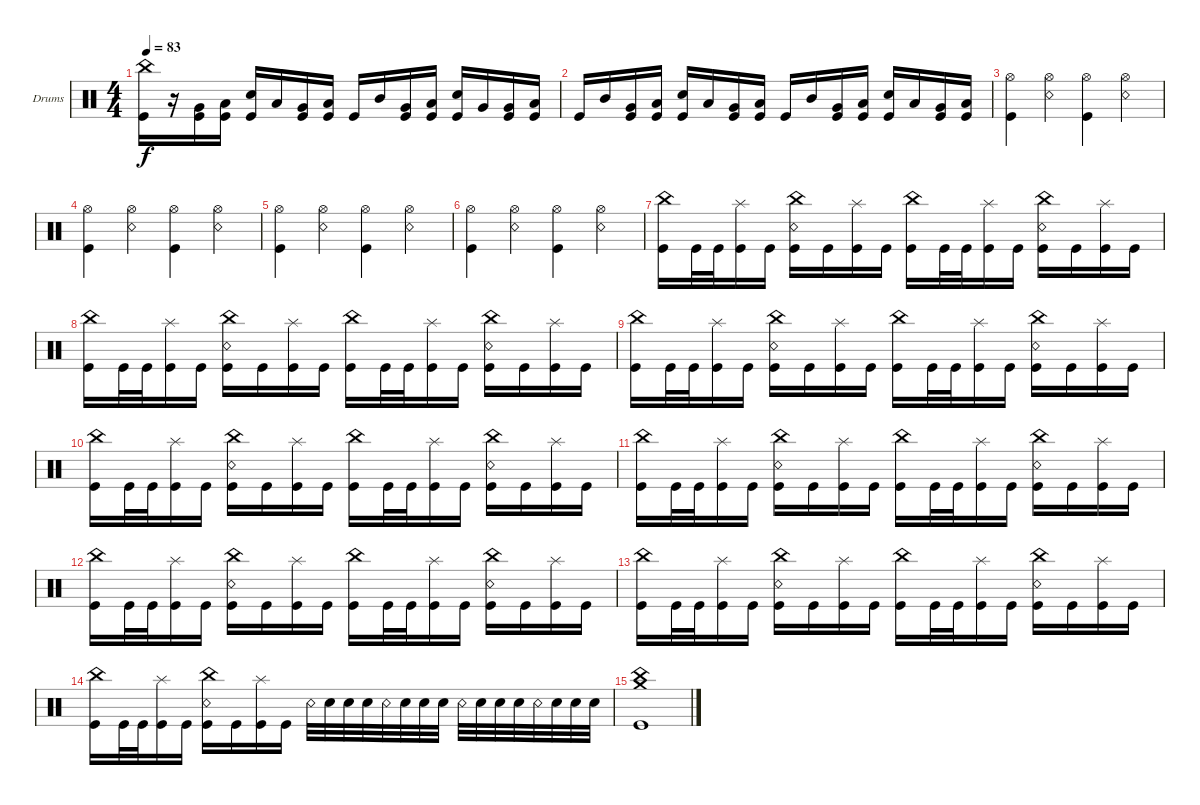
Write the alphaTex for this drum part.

\defaultSystemsLayout 4
\bracketExtendMode groupsimilarinstruments
\firstSystemTrackNameOrientation horizontal
\otherSystemsTrackNameOrientation horizontal
\track ("Drumkit" "Drums") {instrument percussion}
\staff {score}
\articulation defaults
\ts (4 4)
\tempo 83
\clef neutral
\ks c
("Kick (hit)" "China (hit)").16{dy f} r.16 ("Very Low Tom (hit)" "Kick (hit)").16 ("Low Tom (hit)" "Kick (hit)").16 ("Snare (hit) 2" "Kick (hit)").16 "Low Tom (hit)".16 ("Very Low Tom (hit)" "Kick (hit)").16 ("Low Tom (hit)" "Kick (hit)").16 "Kick (hit)".16 "Mid Tom (hit)".16 ("Very Low Tom (hit)" "Kick (hit)").16 ("Low Tom (hit)" "Kick (hit)").16 ("Snare (hit) 2" "Kick (hit)").16 "Very Low Tom (hit)".16 ("Kick (hit)" "Very Low Tom (hit)").16 ("Kick (hit)" "Low Tom (hit)").16 |
"Kick (hit)".16 "Mid Tom (hit)".16 ("Very Low Tom (hit)" "Kick (hit)").16 ("Low Tom (hit)" "Kick (hit)").16 ("Snare (hit) 2" "Kick (hit)").16 "Low Tom (hit)".16 ("Very Low Tom (hit)" "Kick (hit)").16 ("Low Tom (hit)" "Kick (hit)").16 "Kick (hit)".16 "Mid Tom (hit)".16 ("Very Low Tom (hit)" "Kick (hit)").16 ("Low Tom (hit)" "Kick (hit)").16 ("Snare (hit) 2" "Kick (hit)").16 "Low Tom (hit)".16 ("Kick (hit)" "Very Low Tom (hit)").16 ("Kick (hit)" "Low Tom (hit)").16 |
("Hi-Hat (open)" "Kick (hit)").4 ("Hi-Hat (open)" "Snare (rim shot)").4 ("Hi-Hat (open)" "Kick (hit)").4 ("Hi-Hat (open)" "Snare (rim shot)").4 |
("Hi-Hat (open)" "Kick (hit)").4 ("Hi-Hat (open)" "Snare (rim shot)").4 ("Hi-Hat (open)" "Kick (hit)").4 ("Hi-Hat (open)" "Snare (rim shot)").4 |
("Hi-Hat (open)" "Kick (hit)").4 ("Hi-Hat (open)" "Snare (rim shot)").4 ("Hi-Hat (open)" "Kick (hit)").4 ("Hi-Hat (open)" "Snare (rim shot)").4 |
("Hi-Hat (open)" "Kick (hit)").4 ("Hi-Hat (open)" "Snare (rim shot)").4 ("Hi-Hat (open)" "Kick (hit)").4 ("Hi-Hat (open)" "Snare (rim shot)").4 |
("Kick (hit)" "China (hit)").16 "Kick (hit)".32 "Kick (hit)".32 ("Kick (hit)" "Splash (hit)").16 "Kick (hit)".16 ("Kick (hit)" "China (hit)" "Snare (rim shot)").16 "Kick (hit)".16 ("Kick (hit)" "Splash (hit)").16 "Kick (hit)".16 ("Kick (hit)" "China (hit)").16 "Kick (hit)".32 "Kick (hit)".32 ("Kick (hit)" "Splash (hit)").16 "Kick (hit)".16 ("Kick (hit)" "China (hit)" "Snare (rim shot)").16 "Kick (hit)".16 ("Kick (hit)" "Splash (hit)").16 "Kick (hit)".16 |
("Kick (hit)" "China (hit)").16 "Kick (hit)".32 "Kick (hit)".32 ("Kick (hit)" "Splash (hit)").16 "Kick (hit)".16 ("Kick (hit)" "China (hit)" "Snare (rim shot)").16 "Kick (hit)".16 ("Kick (hit)" "Splash (hit)").16 "Kick (hit)".16 ("Kick (hit)" "China (hit)").16 "Kick (hit)".32 "Kick (hit)".32 ("Kick (hit)" "Splash (hit)").16 "Kick (hit)".16 ("Kick (hit)" "China (hit)" "Snare (rim shot)").16 "Kick (hit)".16 ("Kick (hit)" "Splash (hit)").16 "Kick (hit)".16 |
("Kick (hit)" "China (hit)").16 "Kick (hit)".32 "Kick (hit)".32 ("Kick (hit)" "Splash (hit)").16 "Kick (hit)".16 ("Kick (hit)" "China (hit)" "Snare (rim shot)").16 "Kick (hit)".16 ("Kick (hit)" "Splash (hit)").16 "Kick (hit)".16 ("Kick (hit)" "China (hit)").16 "Kick (hit)".32 "Kick (hit)".32 ("Kick (hit)" "Splash (hit)").16 "Kick (hit)".16 ("Kick (hit)" "China (hit)" "Snare (rim shot)").16 "Kick (hit)".16 ("Kick (hit)" "Splash (hit)").16 "Kick (hit)".16 |
("Kick (hit)" "China (hit)").16 "Kick (hit)".32 "Kick (hit)".32 ("Kick (hit)" "Splash (hit)").16 "Kick (hit)".16 ("Kick (hit)" "China (hit)" "Snare (rim shot)").16 "Kick (hit)".16 ("Kick (hit)" "Splash (hit)").16 "Kick (hit)".16 ("Kick (hit)" "China (hit)").16 "Kick (hit)".32 "Kick (hit)".32 ("Kick (hit)" "Splash (hit)").16 "Kick (hit)".16 ("Kick (hit)" "China (hit)" "Snare (rim shot)").16 "Kick (hit)".16 ("Kick (hit)" "Splash (hit)").16 "Kick (hit)".16 |
("Kick (hit)" "China (hit)").16 "Kick (hit)".32 "Kick (hit)".32 ("Kick (hit)" "Splash (hit)").16 "Kick (hit)".16 ("Kick (hit)" "China (hit)" "Snare (rim shot)").16 "Kick (hit)".16 ("Kick (hit)" "Splash (hit)").16 "Kick (hit)".16 ("Kick (hit)" "China (hit)").16 "Kick (hit)".32 "Kick (hit)".32 ("Kick (hit)" "Splash (hit)").16 "Kick (hit)".16 ("Kick (hit)" "China (hit)" "Snare (rim shot)").16 "Kick (hit)".16 ("Kick (hit)" "Splash (hit)").16 "Kick (hit)".16 |
("Kick (hit)" "China (hit)").16 "Kick (hit)".32 "Kick (hit)".32 ("Kick (hit)" "Splash (hit)").16 "Kick (hit)".16 ("Kick (hit)" "China (hit)" "Snare (rim shot)").16 "Kick (hit)".16 ("Kick (hit)" "Splash (hit)").16 "Kick (hit)".16 ("Kick (hit)" "China (hit)").16 "Kick (hit)".32 "Kick (hit)".32 ("Kick (hit)" "Splash (hit)").16 "Kick (hit)".16 ("Kick (hit)" "China (hit)" "Snare (rim shot)").16 "Kick (hit)".16 ("Kick (hit)" "Splash (hit)").16 "Kick (hit)".16 |
("Kick (hit)" "China (hit)").16 "Kick (hit)".32 "Kick (hit)".32 ("Kick (hit)" "Splash (hit)").16 "Kick (hit)".16 ("Kick (hit)" "China (hit)" "Snare (rim shot)").16 "Kick (hit)".16 ("Kick (hit)" "Splash (hit)").16 "Kick (hit)".16 ("Kick (hit)" "China (hit)").16 "Kick (hit)".32 "Kick (hit)".32 ("Kick (hit)" "Splash (hit)").16 "Kick (hit)".16 ("Kick (hit)" "China (hit)" "Snare (rim shot)").16 "Kick (hit)".16 ("Kick (hit)" "Splash (hit)").16 "Kick (hit)".16 |
("Kick (hit)" "China (hit)").16 "Kick (hit)".32 "Kick (hit)".32 ("Kick (hit)" "Splash (hit)").16 "Kick (hit)".16 ("Kick (hit)" "China (hit)" "Snare (rim shot)").16 "Kick (hit)".16 ("Kick (hit)" "Splash (hit)").16 "Kick (hit)".16 "Snare (rim shot)".32 "Snare (hit) 2".32 "Snare (hit) 2".32 "Snare (hit) 2".32 "Snare (rim shot)".32 "Snare (hit) 2".32 "Snare (hit) 2".32 "Snare (hit) 2".32 "Snare (rim shot)".32 "Snare (hit) 2".32 "Snare (hit) 2".32 "Snare (hit) 2".32 "Snare (rim shot)".32 "Snare (hit) 2".32 "Snare (hit) 2".32 "Snare (hit) 2".32 |
("Kick (hit)" "Crash medium (hit)" "China (hit)").1
